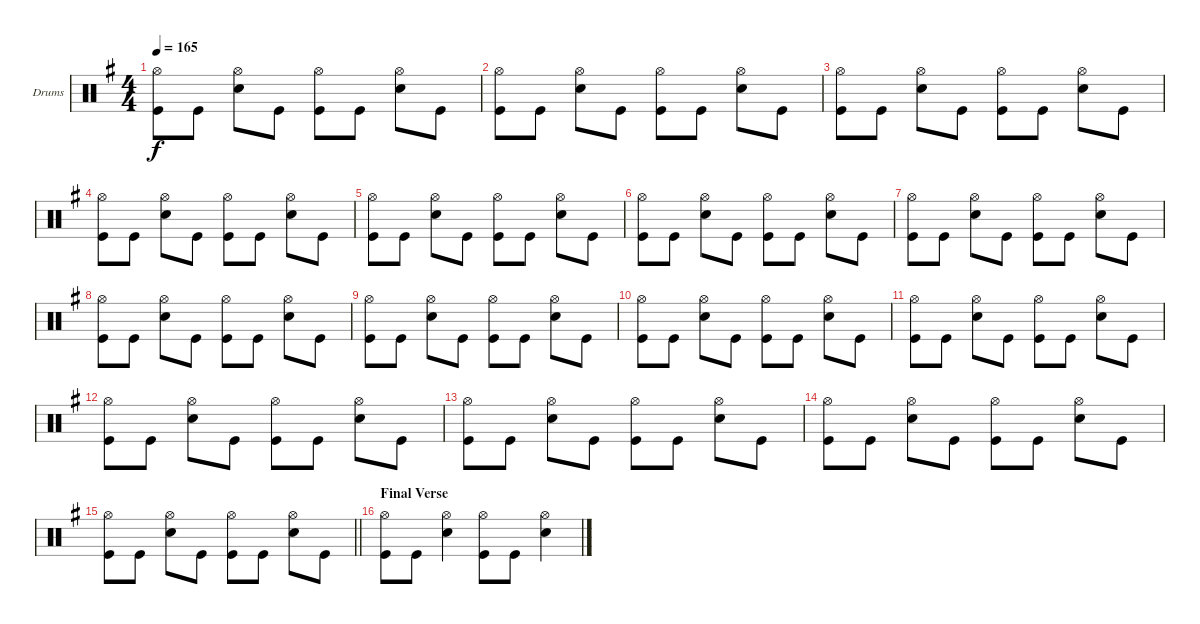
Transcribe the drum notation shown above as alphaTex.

\bracketExtendMode groupsimilarinstruments
\firstSystemTrackNameOrientation horizontal
\otherSystemsTrackNameOrientation horizontal
\track ("Drumkit" "Drums") {instrument percussion}
\staff {score}
\articulation defaults
\ts (4 4)
\tempo 165
\clef neutral
\ks eminor
("Hi-Hat (open)" "Kick (hit)").8{dy f} "Kick (hit)".8 ("Hi-Hat (open)" "Snare (hit) 2").8 "Kick (hit)".8 ("Hi-Hat (open)" "Kick (hit)").8 "Kick (hit)".8 ("Hi-Hat (open)" "Snare (hit) 2").8 "Kick (hit)".8 |
("Hi-Hat (open)" "Kick (hit)").8 "Kick (hit)".8 ("Hi-Hat (open)" "Snare (hit) 2").8 "Kick (hit)".8 ("Hi-Hat (open)" "Kick (hit)").8 "Kick (hit)".8 ("Hi-Hat (open)" "Snare (hit) 2").8 "Kick (hit)".8 |
("Hi-Hat (open)" "Kick (hit)").8 "Kick (hit)".8 ("Hi-Hat (open)" "Snare (hit) 2").8 "Kick (hit)".8 ("Hi-Hat (open)" "Kick (hit)").8 "Kick (hit)".8 ("Hi-Hat (open)" "Snare (hit) 2").8 "Kick (hit)".8 |
("Hi-Hat (open)" "Kick (hit)").8 "Kick (hit)".8 ("Hi-Hat (open)" "Snare (hit) 2").8 "Kick (hit)".8 ("Hi-Hat (open)" "Kick (hit)").8 "Kick (hit)".8 ("Hi-Hat (open)" "Snare (hit) 2").8 "Kick (hit)".8 |
("Hi-Hat (open)" "Kick (hit)").8 "Kick (hit)".8 ("Hi-Hat (open)" "Snare (hit) 2").8 "Kick (hit)".8 ("Hi-Hat (open)" "Kick (hit)").8 "Kick (hit)".8 ("Hi-Hat (open)" "Snare (hit) 2").8 "Kick (hit)".8 |
("Hi-Hat (open)" "Kick (hit)").8 "Kick (hit)".8 ("Hi-Hat (open)" "Snare (hit) 2").8 "Kick (hit)".8 ("Hi-Hat (open)" "Kick (hit)").8 "Kick (hit)".8 ("Hi-Hat (open)" "Snare (hit) 2").8 "Kick (hit)".8 |
("Hi-Hat (open)" "Kick (hit)").8 "Kick (hit)".8 ("Hi-Hat (open)" "Snare (hit) 2").8 "Kick (hit)".8 ("Hi-Hat (open)" "Kick (hit)").8 "Kick (hit)".8 ("Hi-Hat (open)" "Snare (hit) 2").8 "Kick (hit)".8 |
("Hi-Hat (open)" "Kick (hit)").8 "Kick (hit)".8 ("Hi-Hat (open)" "Snare (hit) 2").8 "Kick (hit)".8 ("Hi-Hat (open)" "Kick (hit)").8 "Kick (hit)".8 ("Hi-Hat (open)" "Snare (hit) 2").8 "Kick (hit)".8 |
("Hi-Hat (open)" "Kick (hit)").8 "Kick (hit)".8 ("Hi-Hat (open)" "Snare (hit) 2").8 "Kick (hit)".8 ("Hi-Hat (open)" "Kick (hit)").8 "Kick (hit)".8 ("Hi-Hat (open)" "Snare (hit) 2").8 "Kick (hit)".8 |
("Hi-Hat (open)" "Kick (hit)").8 "Kick (hit)".8 ("Hi-Hat (open)" "Snare (hit) 2").8 "Kick (hit)".8 ("Hi-Hat (open)" "Kick (hit)").8 "Kick (hit)".8 ("Hi-Hat (open)" "Snare (hit) 2").8 "Kick (hit)".8 |
("Hi-Hat (open)" "Kick (hit)").8 "Kick (hit)".8 ("Hi-Hat (open)" "Snare (hit) 2").8 "Kick (hit)".8 ("Hi-Hat (open)" "Kick (hit)").8 "Kick (hit)".8 ("Hi-Hat (open)" "Snare (hit) 2").8 "Kick (hit)".8 |
("Hi-Hat (open)" "Kick (hit)").8 "Kick (hit)".8 ("Hi-Hat (open)" "Snare (hit) 2").8 "Kick (hit)".8 ("Hi-Hat (open)" "Kick (hit)").8 "Kick (hit)".8 ("Hi-Hat (open)" "Snare (hit) 2").8 "Kick (hit)".8 |
("Hi-Hat (open)" "Kick (hit)").8 "Kick (hit)".8 ("Hi-Hat (open)" "Snare (hit) 2").8 "Kick (hit)".8 ("Hi-Hat (open)" "Kick (hit)").8 "Kick (hit)".8 ("Hi-Hat (open)" "Snare (hit) 2").8 "Kick (hit)".8 |
("Hi-Hat (open)" "Kick (hit)").8 "Kick (hit)".8 ("Hi-Hat (open)" "Snare (hit) 2").8 "Kick (hit)".8 ("Hi-Hat (open)" "Kick (hit)").8 "Kick (hit)".8 ("Hi-Hat (open)" "Snare (hit) 2").8 "Kick (hit)".8 |
\barLineRight lightlight
("Hi-Hat (open)" "Kick (hit)").8 "Kick (hit)".8 ("Hi-Hat (open)" "Snare (hit) 2").8 "Kick (hit)".8 ("Hi-Hat (open)" "Kick (hit)").8 "Kick (hit)".8 ("Hi-Hat (open)" "Snare (hit) 2").8 "Kick (hit)".8 |
\section ("" "Final Verse")
("Hi-Hat (open)" "Kick (hit)").8 "Kick (hit)".8 ("Hi-Hat (open)" "Snare (hit) 2").4 ("Hi-Hat (open)" "Kick (hit)").8 "Kick (hit)".8 ("Hi-Hat (open)" "Snare (hit) 2").4
